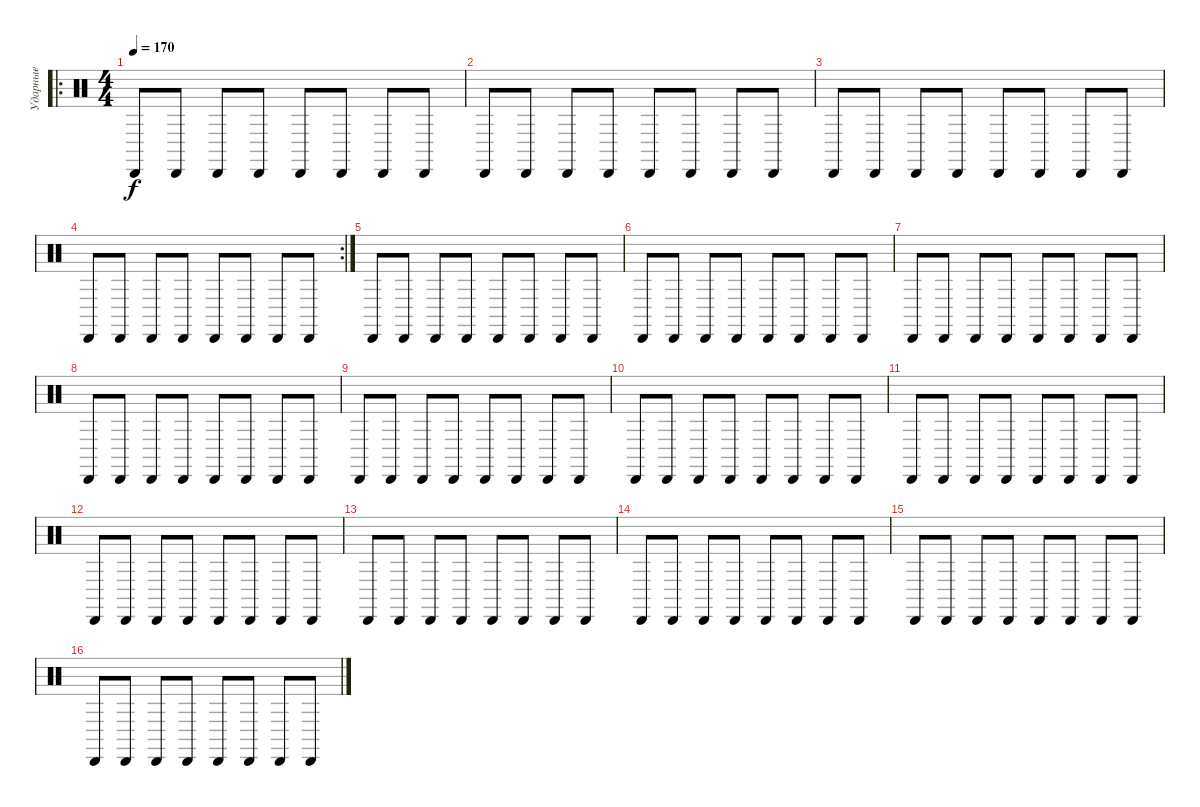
\track ("Ударные" "Ударные") {instrument percussion}
\staff {score}
\articulation defaults
\ro
\ts (4 4)
\tempo 170
\clef neutral
\ks c "Cabasa (hit)".8{dy f} "Cabasa (hit)".8 "Cabasa (hit)".8 "Cabasa (hit)".8 "Cabasa (hit)".8 "Cabasa (hit)".8 "Cabasa (hit)".8 "Cabasa (hit)".8
|
"Cabasa (hit)".8 "Cabasa (hit)".8 "Cabasa (hit)".8 "Cabasa (hit)".8 "Cabasa (hit)".8 "Cabasa (hit)".8 "Cabasa (hit)".8 "Cabasa (hit)".8 |
"Cabasa (hit)".8 "Cabasa (hit)".8 "Cabasa (hit)".8 "Cabasa (hit)".8 "Cabasa (hit)".8 "Cabasa (hit)".8 "Cabasa (hit)".8 "Cabasa (hit)".8 |
\rc 2 "Cabasa (hit)".8 "Cabasa (hit)".8 "Cabasa (hit)".8 "Cabasa (hit)".8 "Cabasa (hit)".8 "Cabasa (hit)".8 "Cabasa (hit)".8 "Cabasa (hit)".8
|
"Cabasa (hit)".8 "Cabasa (hit)".8 "Cabasa (hit)".8 "Cabasa (hit)".8 "Cabasa (hit)".8 "Cabasa (hit)".8 "Cabasa (hit)".8 "Cabasa (hit)".8 |
"Cabasa (hit)".8 "Cabasa (hit)".8 "Cabasa (hit)".8 "Cabasa (hit)".8 "Cabasa (hit)".8 "Cabasa (hit)".8 "Cabasa (hit)".8 "Cabasa (hit)".8 |
"Cabasa (hit)".8 "Cabasa (hit)".8 "Cabasa (hit)".8 "Cabasa (hit)".8 "Cabasa (hit)".8 "Cabasa (hit)".8 "Cabasa (hit)".8 "Cabasa (hit)".8 |
"Cabasa (hit)".8 "Cabasa (hit)".8 "Cabasa (hit)".8 "Cabasa (hit)".8 "Cabasa (hit)".8 "Cabasa (hit)".8 "Cabasa (hit)".8 "Cabasa (hit)".8 |
"Cabasa (hit)".8 "Cabasa (hit)".8 "Cabasa (hit)".8 "Cabasa (hit)".8 "Cabasa (hit)".8 "Cabasa (hit)".8 "Cabasa (hit)".8 "Cabasa (hit)".8 |
"Cabasa (hit)".8 "Cabasa (hit)".8 "Cabasa (hit)".8 "Cabasa (hit)".8 "Cabasa (hit)".8 "Cabasa (hit)".8 "Cabasa (hit)".8 "Cabasa (hit)".8 |
"Cabasa (hit)".8 "Cabasa (hit)".8 "Cabasa (hit)".8 "Cabasa (hit)".8 "Cabasa (hit)".8 "Cabasa (hit)".8 "Cabasa (hit)".8 "Cabasa (hit)".8 |
"Cabasa (hit)".8 "Cabasa (hit)".8 "Cabasa (hit)".8 "Cabasa (hit)".8 "Cabasa (hit)".8 "Cabasa (hit)".8 "Cabasa (hit)".8 "Cabasa (hit)".8 |
"Cabasa (hit)".8 "Cabasa (hit)".8 "Cabasa (hit)".8 "Cabasa (hit)".8 "Cabasa (hit)".8 "Cabasa (hit)".8 "Cabasa (hit)".8 "Cabasa (hit)".8 |
"Cabasa (hit)".8 "Cabasa (hit)".8 "Cabasa (hit)".8 "Cabasa (hit)".8 "Cabasa (hit)".8 "Cabasa (hit)".8 "Cabasa (hit)".8 "Cabasa (hit)".8 |
"Cabasa (hit)".8 "Cabasa (hit)".8 "Cabasa (hit)".8 "Cabasa (hit)".8 "Cabasa (hit)".8 "Cabasa (hit)".8 "Cabasa (hit)".8 "Cabasa (hit)".8 |
"Cabasa (hit)".8 "Cabasa (hit)".8 "Cabasa (hit)".8 "Cabasa (hit)".8 "Cabasa (hit)".8 "Cabasa (hit)".8 "Cabasa (hit)".8 "Cabasa (hit)".8
